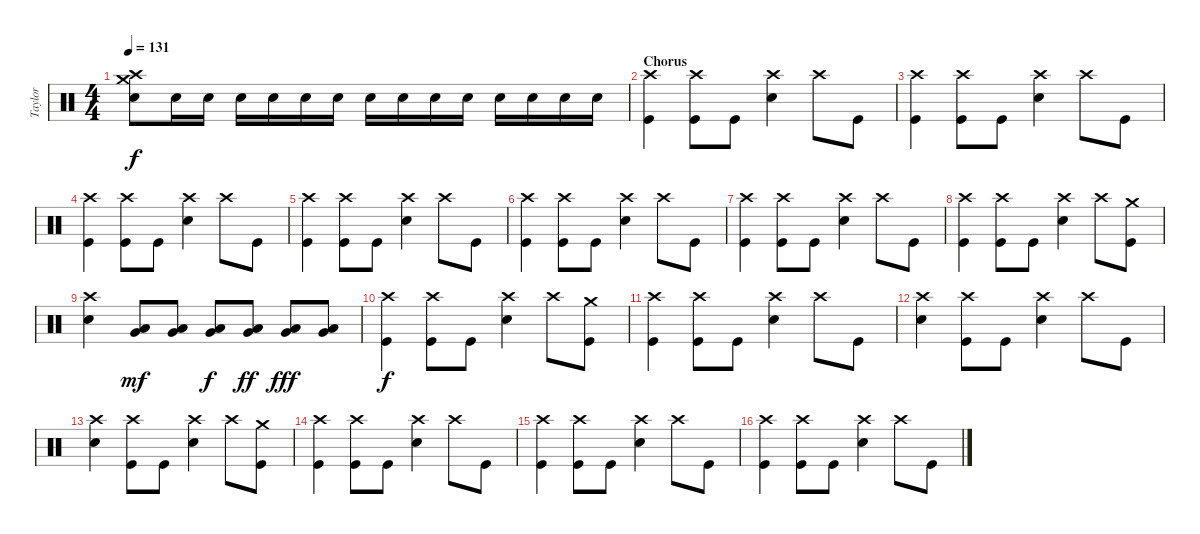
\track ("Taylor" "Taylor") {instrument percussion}
\staff {score}
\articulation defaults
\ts (4 4)
\tempo 131
\clef neutral
\ks c
("Crash medium (hit)" "Crash high (hit)" "Snare (hit) 2").8{dy f} "Snare (hit) 2".16 "Snare (hit) 2".16 "Snare (hit) 2".16 "Snare (hit) 2".16 "Snare (hit) 2".16 "Snare (hit) 2".16 "Snare (hit) 2".16 "Snare (hit) 2".16 "Snare (hit) 2".16 "Snare (hit) 2".16 "Snare (hit) 2".16 "Snare (hit) 2".16 "Snare (hit) 2".16 "Snare (hit) 2".16 |
\section ("" "Chorus")
("Crash high (hit)" "Kick (hit)").4 ("Crash high (hit)" "Kick (hit)").8 "Kick (hit)".8 ("Crash high (hit)" "Snare (hit) 2").4 "Crash high (hit)".8 "Kick (hit)".8 |
("Crash high (hit)" "Kick (hit)").4 ("Crash high (hit)" "Kick (hit)").8 "Kick (hit)".8 ("Crash high (hit)" "Snare (hit) 2").4 "Crash high (hit)".8 "Kick (hit)".8 |
("Crash high (hit)" "Kick (hit)").4 ("Crash high (hit)" "Kick (hit)").8 "Kick (hit)".8 ("Crash high (hit)" "Snare (hit) 2").4 "Crash high (hit)".8 "Kick (hit)".8 |
("Crash high (hit)" "Kick (hit)").4 ("Crash high (hit)" "Kick (hit)").8 "Kick (hit)".8 ("Crash high (hit)" "Snare (hit) 2").4 "Crash high (hit)".8 "Kick (hit)".8 |
("Crash high (hit)" "Kick (hit)").4 ("Crash high (hit)" "Kick (hit)").8 "Kick (hit)".8 ("Crash high (hit)" "Snare (hit) 2").4 "Crash high (hit)".8 "Kick (hit)".8 |
("Crash high (hit)" "Kick (hit)").4 ("Crash high (hit)" "Kick (hit)").8 "Kick (hit)".8 ("Crash high (hit)" "Snare (hit) 2").4 "Crash high (hit)".8 "Kick (hit)".8 |
("Crash high (hit)" "Kick (hit)").4 ("Crash high (hit)" "Kick (hit)").8 "Kick (hit)".8 ("Crash high (hit)" "Snare (hit) 2").4 "Crash high (hit)".8 ("Crash medium (hit)" "Kick (hit)").8 |
("Crash high (hit)" "Snare (hit) 2").4 ("Very Low Tom (hit)" "Low Floor Tom (hit)").8{dy mf} ("Very Low Tom (hit)" "Low Floor Tom (hit)").8 ("Very Low Tom (hit)" "Low Floor Tom (hit)").8{dy f} ("Very Low Tom (hit)" "Low Floor Tom (hit)").8{dy ff} ("Very Low Tom (hit)" "Low Floor Tom (hit)").8{dy fff} ("Very Low Tom (hit)" "Low Floor Tom (hit)").8 |
("Crash high (hit)" "Kick (hit)").4{dy f} ("Crash high (hit)" "Kick (hit)").8 "Kick (hit)".8 ("Crash high (hit)" "Snare (hit) 2").4 "Crash high (hit)".8 ("Crash medium (hit)" "Kick (hit)").8 |
("Crash high (hit)" "Kick (hit)").4 ("Crash high (hit)" "Kick (hit)").8 "Kick (hit)".8 ("Crash high (hit)" "Snare (hit) 2").4 "Crash high (hit)".8 "Kick (hit)".8 |
("Crash high (hit)" "Snare (hit) 2").4 ("Crash high (hit)" "Kick (hit)").8 "Kick (hit)".8 ("Crash high (hit)" "Snare (hit) 2").4 "Crash high (hit)".8 "Kick (hit)".8 |
("Crash high (hit)" "Snare (hit) 2").4 ("Crash high (hit)" "Kick (hit)").8 "Kick (hit)".8 ("Crash high (hit)" "Snare (hit) 2").4 "Crash high (hit)".8 ("Crash medium (hit)" "Kick (hit)").8 |
("Crash high (hit)" "Kick (hit)").4 ("Crash high (hit)" "Kick (hit)").8 "Kick (hit)".8 ("Crash high (hit)" "Snare (hit) 2").4 "Crash high (hit)".8 "Kick (hit)".8 |
("Crash high (hit)" "Kick (hit)").4 ("Crash high (hit)" "Kick (hit)").8 "Kick (hit)".8 ("Crash high (hit)" "Snare (hit) 2").4 "Crash high (hit)".8 "Kick (hit)".8 |
("Crash high (hit)" "Kick (hit)").4 ("Crash high (hit)" "Kick (hit)").8 "Kick (hit)".8 ("Crash high (hit)" "Snare (hit) 2").4 "Crash high (hit)".8 "Kick (hit)".8
